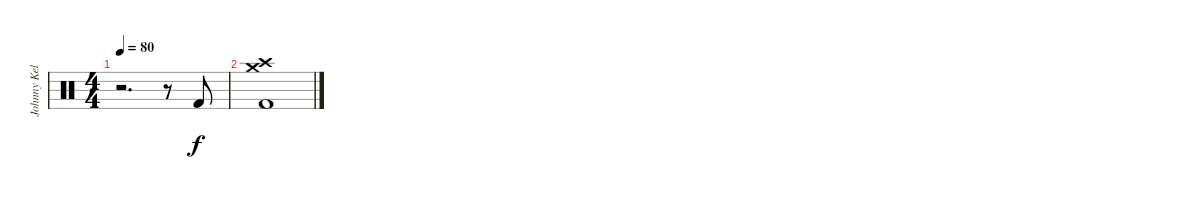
\track ("Johnny Kelly" "Johnny Kel") {instrument percussion}
\staff {score}
\articulation defaults
\ts (4 4)
\tempo 80
\clef neutral
\ks c
r.2{d dy f} r.8 "Kick (hit) 2".8 |
("Crash medium (hit)" "Crash high (hit)" "Kick (hit) 2").1
